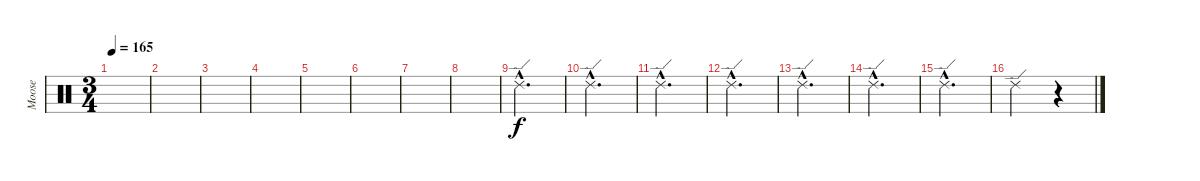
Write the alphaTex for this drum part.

\track ("Moose" "Moose") {instrument percussion}
\staff {score}
\articulation defaults
\ts (3 4)
\tempo 165
\clef neutral
\ks c
|
|
|
|
|
|
|
|
"Ride (edge) 2"{hac}.2{d} |
"Ride (edge) 2"{hac}.2{d} |
"Ride (edge) 2"{hac}.2{d} |
"Ride (edge) 2"{hac}.2{d} |
"Ride (edge) 2"{hac}.2{d} |
"Ride (edge) 2"{hac}.2{d} |
"Ride (edge) 2"{hac}.2{d} |
"Ride (edge) 2".2 r.4{volume 0}
